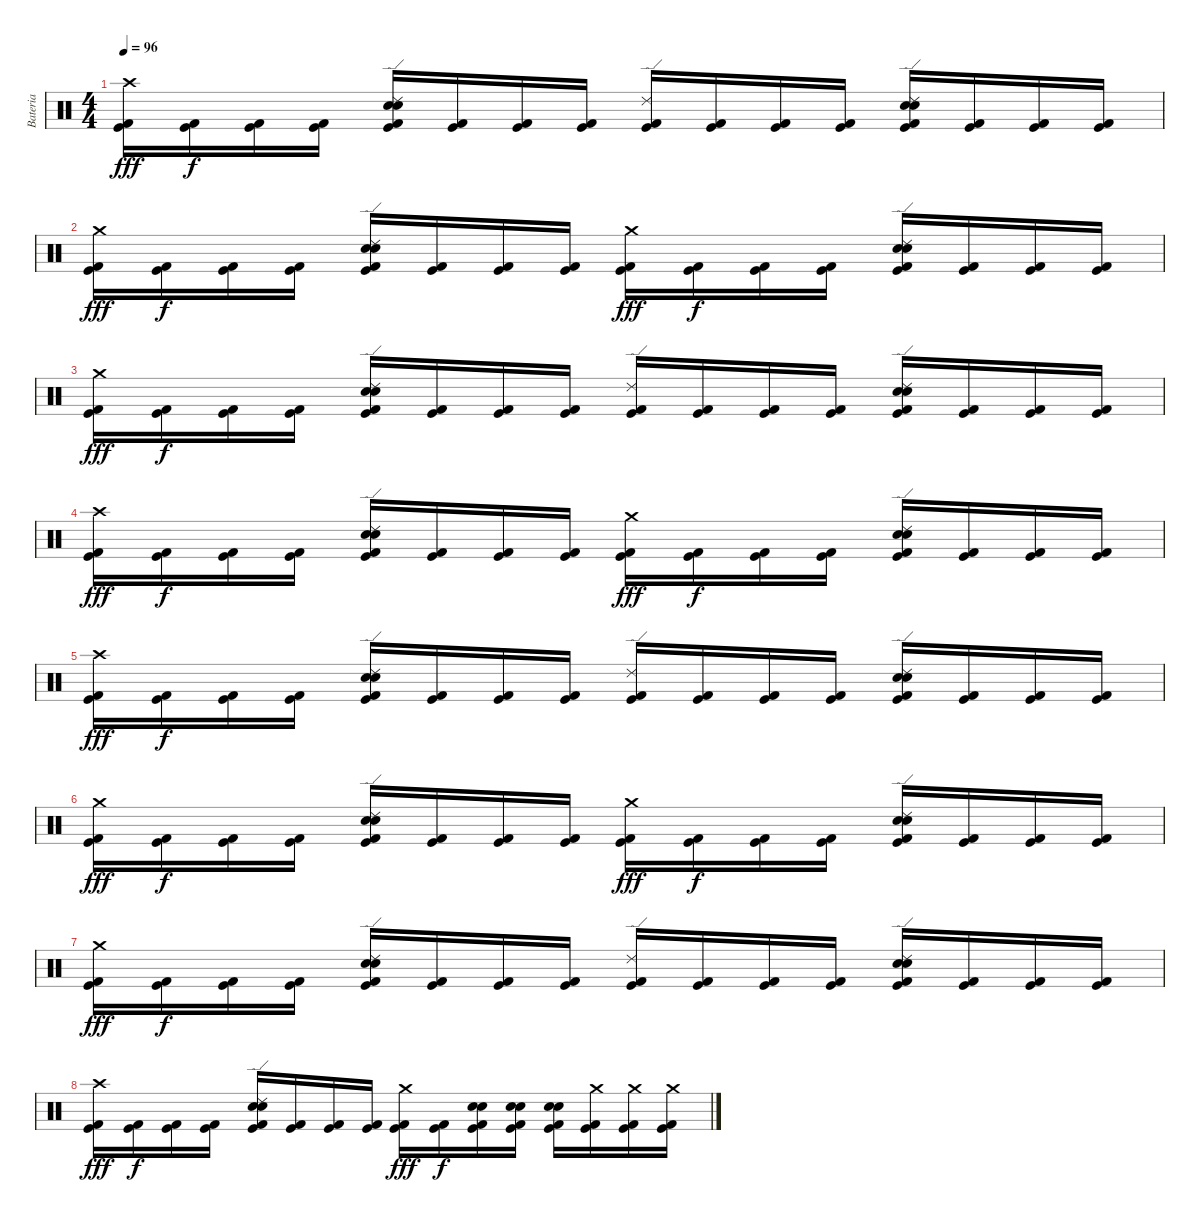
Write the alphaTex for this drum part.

\track ("Bateria" "Bateria") {instrument percussion}
\staff {score}
\articulation defaults
\ts (4 4)
\tempo 96
\clef neutral
\ks c
("Crash high (hit)" "Kick (hit) 2" "Kick (hit)").16{dy fff} ("Kick (hit) 2" "Kick (hit)").16{dy f} ("Kick (hit) 2" "Kick (hit)").16 ("Kick (hit) 2" "Kick (hit)").16 ("Ride (edge) 2" "Electric Snare (hit)" "Snare (hit) 2" "Kick (hit) 2" "Kick (hit)").16 ("Kick (hit) 2" "Kick (hit)").16 ("Kick (hit) 2" "Kick (hit)").16 ("Kick (hit) 2" "Kick (hit)").16 ("Ride (edge) 2" "Kick (hit) 2" "Kick (hit)").16 ("Kick (hit) 2" "Kick (hit)").16 ("Kick (hit) 2" "Kick (hit)").16 ("Kick (hit) 2" "Kick (hit)").16 ("Ride (edge) 2" "Electric Snare (hit)" "Snare (hit) 2" "Kick (hit) 2" "Kick (hit)").16 ("Kick (hit) 2" "Kick (hit)").16 ("Kick (hit) 2" "Kick (hit)").16 ("Kick (hit) 2" "Kick (hit)").16 |
("Crash medium (hit)" "Kick (hit) 2" "Kick (hit)").16{dy fff} ("Kick (hit) 2" "Kick (hit)").16{dy f} ("Kick (hit) 2" "Kick (hit)").16 ("Kick (hit) 2" "Kick (hit)").16 ("Ride (edge) 2" "Electric Snare (hit)" "Snare (hit) 2" "Kick (hit) 2" "Kick (hit)").16 ("Kick (hit) 2" "Kick (hit)").16 ("Kick (hit) 2" "Kick (hit)").16 ("Kick (hit) 2" "Kick (hit)").16 ("Crash medium (hit)" "Kick (hit) 2" "Kick (hit)").16{dy fff} ("Kick (hit) 2" "Kick (hit)").16{dy f} ("Kick (hit) 2" "Kick (hit)").16 ("Kick (hit) 2" "Kick (hit)").16 ("Ride (edge) 2" "Electric Snare (hit)" "Snare (hit) 2" "Kick (hit) 2" "Kick (hit)").16 ("Kick (hit) 2" "Kick (hit)").16 ("Kick (hit) 2" "Kick (hit)").16 ("Kick (hit) 2" "Kick (hit)").16 |
("Crash medium (hit)" "Kick (hit) 2" "Kick (hit)").16{dy fff} ("Kick (hit) 2" "Kick (hit)").16{dy f} ("Kick (hit) 2" "Kick (hit)").16 ("Kick (hit) 2" "Kick (hit)").16 ("Ride (edge) 2" "Electric Snare (hit)" "Snare (hit) 2" "Kick (hit) 2" "Kick (hit)").16 ("Kick (hit) 2" "Kick (hit)").16 ("Kick (hit) 2" "Kick (hit)").16 ("Kick (hit) 2" "Kick (hit)").16 ("Ride (edge) 2" "Kick (hit) 2" "Kick (hit)").16 ("Kick (hit) 2" "Kick (hit)").16 ("Kick (hit) 2" "Kick (hit)").16 ("Kick (hit) 2" "Kick (hit)").16 ("Ride (edge) 2" "Electric Snare (hit)" "Snare (hit) 2" "Kick (hit) 2" "Kick (hit)").16 ("Kick (hit) 2" "Kick (hit)").16 ("Kick (hit) 2" "Kick (hit)").16 ("Kick (hit) 2" "Kick (hit)").16 |
("Crash high (hit)" "Kick (hit) 2" "Kick (hit)").16{dy fff} ("Kick (hit) 2" "Kick (hit)").16{dy f} ("Kick (hit) 2" "Kick (hit)").16 ("Kick (hit) 2" "Kick (hit)").16 ("Ride (edge) 2" "Electric Snare (hit)" "Snare (hit) 2" "Kick (hit) 2" "Kick (hit)").16 ("Kick (hit) 2" "Kick (hit)").16 ("Kick (hit) 2" "Kick (hit)").16 ("Kick (hit) 2" "Kick (hit)").16 ("Crash medium (hit)" "Kick (hit) 2" "Kick (hit)").16{dy fff} ("Kick (hit) 2" "Kick (hit)").16{dy f} ("Kick (hit) 2" "Kick (hit)").16 ("Kick (hit) 2" "Kick (hit)").16 ("Ride (edge) 2" "Electric Snare (hit)" "Snare (hit) 2" "Kick (hit) 2" "Kick (hit)").16 ("Kick (hit) 2" "Kick (hit)").16 ("Kick (hit) 2" "Kick (hit)").16 ("Kick (hit) 2" "Kick (hit)").16 |
("Crash high (hit)" "Kick (hit) 2" "Kick (hit)").16{dy fff} ("Kick (hit) 2" "Kick (hit)").16{dy f} ("Kick (hit) 2" "Kick (hit)").16 ("Kick (hit) 2" "Kick (hit)").16 ("Ride (edge) 2" "Electric Snare (hit)" "Snare (hit) 2" "Kick (hit) 2" "Kick (hit)").16 ("Kick (hit) 2" "Kick (hit)").16 ("Kick (hit) 2" "Kick (hit)").16 ("Kick (hit) 2" "Kick (hit)").16 ("Ride (edge) 2" "Kick (hit) 2" "Kick (hit)").16 ("Kick (hit) 2" "Kick (hit)").16 ("Kick (hit) 2" "Kick (hit)").16 ("Kick (hit) 2" "Kick (hit)").16 ("Ride (edge) 2" "Electric Snare (hit)" "Snare (hit) 2" "Kick (hit) 2" "Kick (hit)").16 ("Kick (hit) 2" "Kick (hit)").16 ("Kick (hit) 2" "Kick (hit)").16 ("Kick (hit) 2" "Kick (hit)").16 |
("Crash medium (hit)" "Kick (hit) 2" "Kick (hit)").16{dy fff} ("Kick (hit) 2" "Kick (hit)").16{dy f} ("Kick (hit) 2" "Kick (hit)").16 ("Kick (hit) 2" "Kick (hit)").16 ("Ride (edge) 2" "Electric Snare (hit)" "Snare (hit) 2" "Kick (hit) 2" "Kick (hit)").16 ("Kick (hit) 2" "Kick (hit)").16 ("Kick (hit) 2" "Kick (hit)").16 ("Kick (hit) 2" "Kick (hit)").16 ("Crash medium (hit)" "Kick (hit) 2" "Kick (hit)").16{dy fff} ("Kick (hit) 2" "Kick (hit)").16{dy f} ("Kick (hit) 2" "Kick (hit)").16 ("Kick (hit) 2" "Kick (hit)").16 ("Ride (edge) 2" "Electric Snare (hit)" "Snare (hit) 2" "Kick (hit) 2" "Kick (hit)").16 ("Kick (hit) 2" "Kick (hit)").16 ("Kick (hit) 2" "Kick (hit)").16 ("Kick (hit) 2" "Kick (hit)").16 |
("Crash medium (hit)" "Kick (hit) 2" "Kick (hit)").16{dy fff} ("Kick (hit) 2" "Kick (hit)").16{dy f} ("Kick (hit) 2" "Kick (hit)").16 ("Kick (hit) 2" "Kick (hit)").16 ("Ride (edge) 2" "Electric Snare (hit)" "Snare (hit) 2" "Kick (hit) 2" "Kick (hit)").16 ("Kick (hit) 2" "Kick (hit)").16 ("Kick (hit) 2" "Kick (hit)").16 ("Kick (hit) 2" "Kick (hit)").16 ("Ride (edge) 2" "Kick (hit) 2" "Kick (hit)").16 ("Kick (hit) 2" "Kick (hit)").16 ("Kick (hit) 2" "Kick (hit)").16 ("Kick (hit) 2" "Kick (hit)").16 ("Ride (edge) 2" "Electric Snare (hit)" "Snare (hit) 2" "Kick (hit) 2" "Kick (hit)").16 ("Kick (hit) 2" "Kick (hit)").16 ("Kick (hit) 2" "Kick (hit)").16 ("Kick (hit) 2" "Kick (hit)").16 |
("Crash high (hit)" "Kick (hit) 2" "Kick (hit)").16{dy fff} ("Kick (hit) 2" "Kick (hit)").16{dy f} ("Kick (hit) 2" "Kick (hit)").16 ("Kick (hit) 2" "Kick (hit)").16 ("Ride (edge) 2" "Electric Snare (hit)" "Snare (hit) 2" "Kick (hit) 2" "Kick (hit)").16 ("Kick (hit) 2" "Kick (hit)").16 ("Kick (hit) 2" "Kick (hit)").16 ("Kick (hit) 2" "Kick (hit)").16 ("Crash medium (hit)" "Kick (hit) 2" "Kick (hit)").16{dy fff} ("Kick (hit) 2" "Kick (hit)").16{dy f} ("Electric Snare (hit)" "Snare (hit) 2" "Kick (hit) 2" "Kick (hit)").16 ("Electric Snare (hit)" "Snare (hit) 2" "Kick (hit) 2" "Kick (hit)").16 ("Electric Snare (hit)" "Snare (hit) 2" "Kick (hit) 2" "Kick (hit)").16 ("Crash medium (hit)" "Kick (hit) 2" "Kick (hit)").16 ("Crash medium (hit)" "Kick (hit) 2" "Kick (hit)").16 ("Crash medium (hit)" "Kick (hit) 2" "Kick (hit)").16
